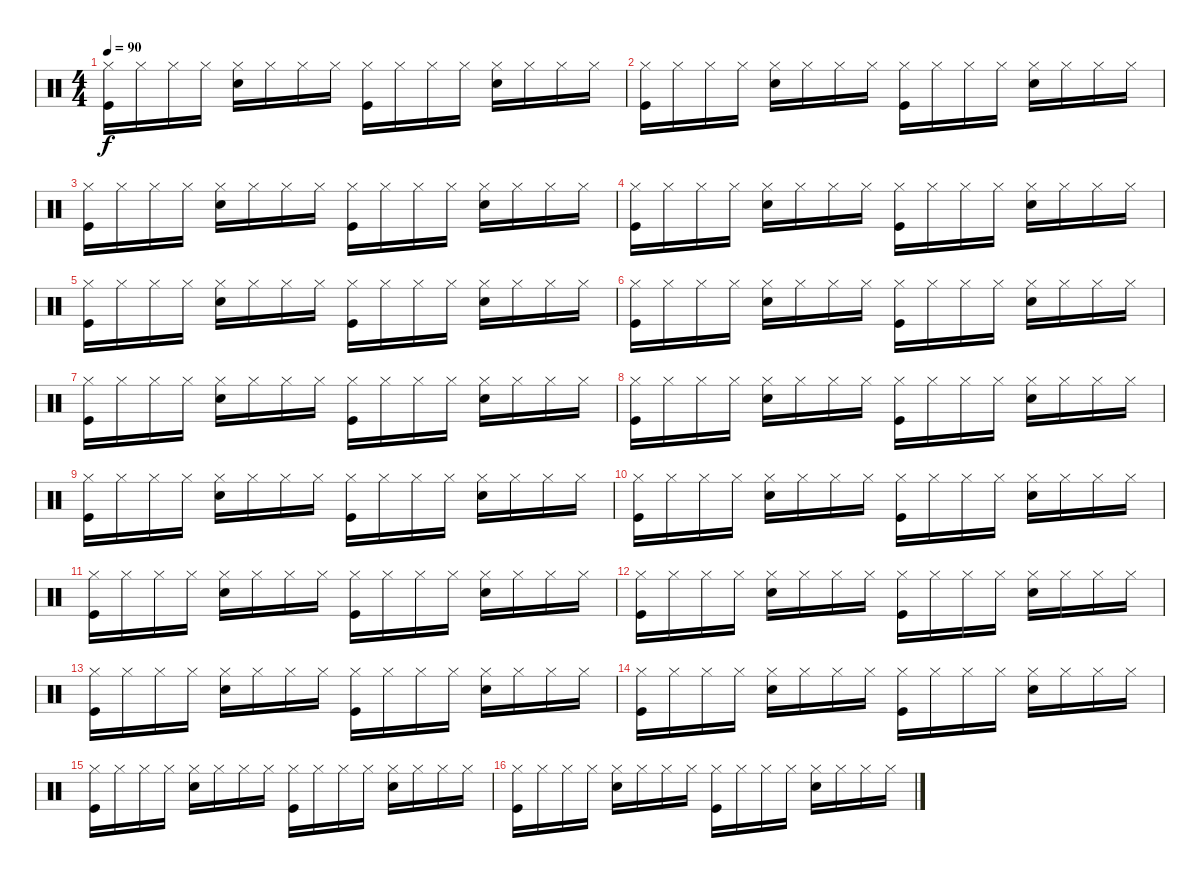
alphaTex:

\track "" {instrument percussion}
\staff {score}
\articulation defaults
\ts (4 4)
\tempo 90
\clef neutral
\ks c
("Hi-Hat (closed)" "Kick (hit)").16{dy f} "Hi-Hat (closed)".16 "Hi-Hat (closed)".16 "Hi-Hat (closed)".16 ("Hi-Hat (closed)" "Snare (hit) 2").16 "Hi-Hat (closed)".16 "Hi-Hat (closed)".16 "Hi-Hat (closed)".16 ("Hi-Hat (closed)" "Kick (hit)").16 "Hi-Hat (closed)".16 "Hi-Hat (closed)".16 "Hi-Hat (closed)".16 ("Hi-Hat (closed)" "Snare (hit) 2").16 "Hi-Hat (closed)".16 "Hi-Hat (closed)".16 "Hi-Hat (closed)".16 |
("Hi-Hat (closed)" "Kick (hit)").16 "Hi-Hat (closed)".16 "Hi-Hat (closed)".16 "Hi-Hat (closed)".16 ("Hi-Hat (closed)" "Snare (hit) 2").16 "Hi-Hat (closed)".16 "Hi-Hat (closed)".16 "Hi-Hat (closed)".16 ("Hi-Hat (closed)" "Kick (hit)").16 "Hi-Hat (closed)".16 "Hi-Hat (closed)".16 "Hi-Hat (closed)".16 ("Hi-Hat (closed)" "Snare (hit) 2").16 "Hi-Hat (closed)".16 "Hi-Hat (closed)".16 "Hi-Hat (closed)".16 |
("Hi-Hat (closed)" "Kick (hit)").16 "Hi-Hat (closed)".16 "Hi-Hat (closed)".16 "Hi-Hat (closed)".16 ("Hi-Hat (closed)" "Snare (hit) 2").16 "Hi-Hat (closed)".16 "Hi-Hat (closed)".16 "Hi-Hat (closed)".16 ("Hi-Hat (closed)" "Kick (hit)").16 "Hi-Hat (closed)".16 "Hi-Hat (closed)".16 "Hi-Hat (closed)".16 ("Hi-Hat (closed)" "Snare (hit) 2").16 "Hi-Hat (closed)".16 "Hi-Hat (closed)".16 "Hi-Hat (closed)".16 |
("Hi-Hat (closed)" "Kick (hit)").16 "Hi-Hat (closed)".16 "Hi-Hat (closed)".16 "Hi-Hat (closed)".16 ("Hi-Hat (closed)" "Snare (hit) 2").16 "Hi-Hat (closed)".16 "Hi-Hat (closed)".16 "Hi-Hat (closed)".16 ("Hi-Hat (closed)" "Kick (hit)").16 "Hi-Hat (closed)".16 "Hi-Hat (closed)".16 "Hi-Hat (closed)".16 ("Hi-Hat (closed)" "Snare (hit) 2").16 "Hi-Hat (closed)".16 "Hi-Hat (closed)".16 "Hi-Hat (closed)".16 |
("Hi-Hat (closed)" "Kick (hit)").16 "Hi-Hat (closed)".16 "Hi-Hat (closed)".16 "Hi-Hat (closed)".16 ("Hi-Hat (closed)" "Snare (hit) 2").16 "Hi-Hat (closed)".16 "Hi-Hat (closed)".16 "Hi-Hat (closed)".16 ("Hi-Hat (closed)" "Kick (hit)").16 "Hi-Hat (closed)".16 "Hi-Hat (closed)".16 "Hi-Hat (closed)".16 ("Hi-Hat (closed)" "Snare (hit) 2").16 "Hi-Hat (closed)".16 "Hi-Hat (closed)".16 "Hi-Hat (closed)".16 |
("Hi-Hat (closed)" "Kick (hit)").16 "Hi-Hat (closed)".16 "Hi-Hat (closed)".16 "Hi-Hat (closed)".16 ("Hi-Hat (closed)" "Snare (hit) 2").16 "Hi-Hat (closed)".16 "Hi-Hat (closed)".16 "Hi-Hat (closed)".16 ("Hi-Hat (closed)" "Kick (hit)").16 "Hi-Hat (closed)".16 "Hi-Hat (closed)".16 "Hi-Hat (closed)".16 ("Hi-Hat (closed)" "Snare (hit) 2").16 "Hi-Hat (closed)".16 "Hi-Hat (closed)".16 "Hi-Hat (closed)".16 |
("Hi-Hat (closed)" "Kick (hit)").16 "Hi-Hat (closed)".16 "Hi-Hat (closed)".16 "Hi-Hat (closed)".16 ("Hi-Hat (closed)" "Snare (hit) 2").16 "Hi-Hat (closed)".16 "Hi-Hat (closed)".16 "Hi-Hat (closed)".16 ("Hi-Hat (closed)" "Kick (hit)").16 "Hi-Hat (closed)".16 "Hi-Hat (closed)".16 "Hi-Hat (closed)".16 ("Hi-Hat (closed)" "Snare (hit) 2").16 "Hi-Hat (closed)".16 "Hi-Hat (closed)".16 "Hi-Hat (closed)".16 |
("Hi-Hat (closed)" "Kick (hit)").16 "Hi-Hat (closed)".16 "Hi-Hat (closed)".16 "Hi-Hat (closed)".16 ("Hi-Hat (closed)" "Snare (hit) 2").16 "Hi-Hat (closed)".16 "Hi-Hat (closed)".16 "Hi-Hat (closed)".16 ("Hi-Hat (closed)" "Kick (hit)").16 "Hi-Hat (closed)".16 "Hi-Hat (closed)".16 "Hi-Hat (closed)".16 ("Hi-Hat (closed)" "Snare (hit) 2").16 "Hi-Hat (closed)".16 "Hi-Hat (closed)".16 "Hi-Hat (closed)".16 |
("Hi-Hat (closed)" "Kick (hit)").16 "Hi-Hat (closed)".16 "Hi-Hat (closed)".16 "Hi-Hat (closed)".16 ("Hi-Hat (closed)" "Snare (hit) 2").16 "Hi-Hat (closed)".16 "Hi-Hat (closed)".16 "Hi-Hat (closed)".16 ("Hi-Hat (closed)" "Kick (hit)").16 "Hi-Hat (closed)".16 "Hi-Hat (closed)".16 "Hi-Hat (closed)".16 ("Hi-Hat (closed)" "Snare (hit) 2").16 "Hi-Hat (closed)".16 "Hi-Hat (closed)".16 "Hi-Hat (closed)".16 |
("Hi-Hat (closed)" "Kick (hit)").16 "Hi-Hat (closed)".16 "Hi-Hat (closed)".16 "Hi-Hat (closed)".16 ("Snare (hit) 2" "Hi-Hat (closed)").16 "Hi-Hat (closed)".16 "Hi-Hat (closed)".16 "Hi-Hat (closed)".16 ("Hi-Hat (closed)" "Kick (hit)").16 "Hi-Hat (closed)".16 "Hi-Hat (closed)".16 "Hi-Hat (closed)".16 ("Hi-Hat (closed)" "Snare (hit) 2").16 "Hi-Hat (closed)".16 "Hi-Hat (closed)".16 "Hi-Hat (closed)".16 |
("Kick (hit)" "Hi-Hat (closed)").16 "Hi-Hat (closed)".16 "Hi-Hat (closed)".16 "Hi-Hat (closed)".16 ("Hi-Hat (closed)" "Snare (hit) 2").16 "Hi-Hat (closed)".16 "Hi-Hat (closed)".16 "Hi-Hat (closed)".16 ("Hi-Hat (closed)" "Kick (hit)").16 "Hi-Hat (closed)".16 "Hi-Hat (closed)".16 "Hi-Hat (closed)".16 ("Snare (hit) 2" "Hi-Hat (closed)").16 "Hi-Hat (closed)".16 "Hi-Hat (closed)".16 "Hi-Hat (closed)".16 |
("Hi-Hat (closed)" "Kick (hit)").16 "Hi-Hat (closed)".16 "Hi-Hat (closed)".16 "Hi-Hat (closed)".16 ("Hi-Hat (closed)" "Snare (hit) 2").16 "Hi-Hat (closed)".16 "Hi-Hat (closed)".16 "Hi-Hat (closed)".16 ("Kick (hit)" "Hi-Hat (closed)").16 "Hi-Hat (closed)".16 "Hi-Hat (closed)".16 "Hi-Hat (closed)".16 ("Hi-Hat (closed)" "Snare (hit) 2").16 "Hi-Hat (closed)".16 "Hi-Hat (closed)".16 "Hi-Hat (closed)".16 |
("Hi-Hat (closed)" "Kick (hit)").16 "Hi-Hat (closed)".16 "Hi-Hat (closed)".16 "Hi-Hat (closed)".16 ("Snare (hit) 2" "Hi-Hat (closed)").16 "Hi-Hat (closed)".16 "Hi-Hat (closed)".16 "Hi-Hat (closed)".16 ("Hi-Hat (closed)" "Kick (hit)").16 "Hi-Hat (closed)".16 "Hi-Hat (closed)".16 "Hi-Hat (closed)".16 ("Hi-Hat (closed)" "Snare (hit) 2").16 "Hi-Hat (closed)".16 "Hi-Hat (closed)".16 "Hi-Hat (closed)".16 |
("Kick (hit)" "Hi-Hat (closed)").16 "Hi-Hat (closed)".16 "Hi-Hat (closed)".16 "Hi-Hat (closed)".16 ("Hi-Hat (closed)" "Snare (hit) 2").16 "Hi-Hat (closed)".16 "Hi-Hat (closed)".16 "Hi-Hat (closed)".16 ("Hi-Hat (closed)" "Kick (hit)").16 "Hi-Hat (closed)".16 "Hi-Hat (closed)".16 "Hi-Hat (closed)".16 ("Snare (hit) 2" "Hi-Hat (closed)").16 "Hi-Hat (closed)".16 "Hi-Hat (closed)".16 "Hi-Hat (closed)".16 |
("Hi-Hat (closed)" "Kick (hit)").16 "Hi-Hat (closed)".16 "Hi-Hat (closed)".16 "Hi-Hat (closed)".16 ("Hi-Hat (closed)" "Snare (hit) 2").16 "Hi-Hat (closed)".16 "Hi-Hat (closed)".16 "Hi-Hat (closed)".16 ("Kick (hit)" "Hi-Hat (closed)").16 "Hi-Hat (closed)".16 "Hi-Hat (closed)".16 "Hi-Hat (closed)".16 ("Hi-Hat (closed)" "Snare (hit) 2").16 "Hi-Hat (closed)".16 "Hi-Hat (closed)".16 "Hi-Hat (closed)".16 |
("Hi-Hat (closed)" "Kick (hit)").16 "Hi-Hat (closed)".16 "Hi-Hat (closed)".16 "Hi-Hat (closed)".16 ("Snare (hit) 2" "Hi-Hat (closed)").16 "Hi-Hat (closed)".16 "Hi-Hat (closed)".16 "Hi-Hat (closed)".16 ("Hi-Hat (closed)" "Kick (hit)").16 "Hi-Hat (closed)".16 "Hi-Hat (closed)".16 "Hi-Hat (closed)".16 ("Hi-Hat (closed)" "Snare (hit) 2").16 "Hi-Hat (closed)".16 "Hi-Hat (closed)".16 "Hi-Hat (closed)".16
